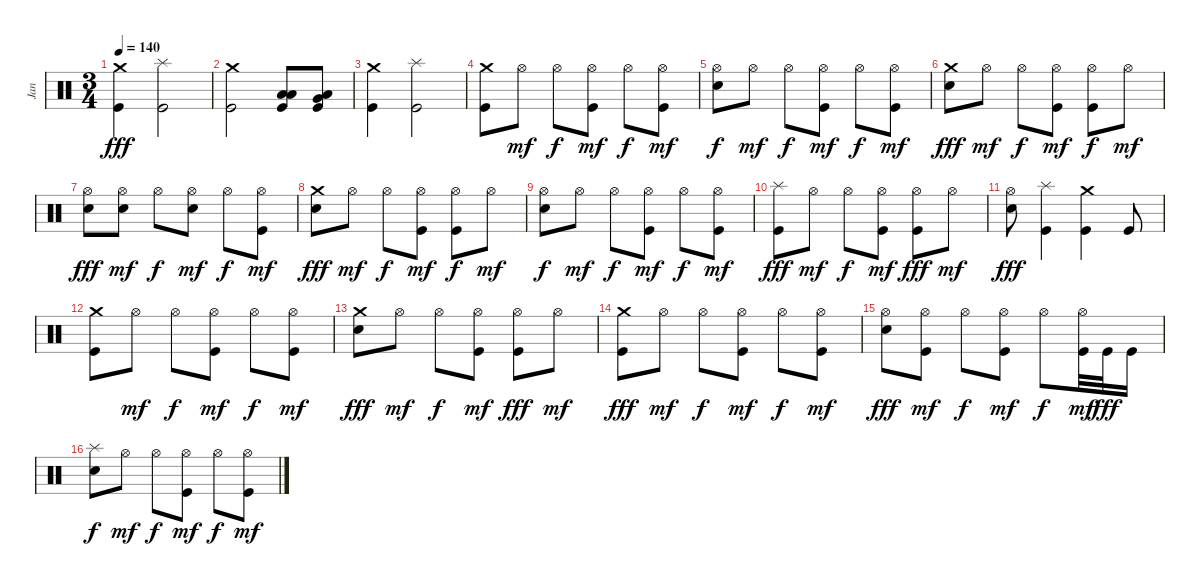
\track ("Jan" "Jan") {instrument percussion}
\staff {score}
\articulation defaults
\ts (3 4)
\tempo 140
\clef neutral
\ks c
("Kick (hit)" "Crash medium (hit)").4{dy fff} ("Kick (hit)" "Splash (hit)").2 |
("Kick (hit)" "Crash medium (hit)").2 ("Kick (hit)" "Low Tom (hit)" "Low Tom (hit)").8 ("Kick (hit)" "Very Low Tom (hit)" "Low Tom (hit)").8 |
("Kick (hit)" "Crash medium (hit)").4 ("Kick (hit)" "Splash (hit)").2 |
("Kick (hit)" "Crash medium (hit)").8 "Hi-Hat (open)".8{dy mf} "Hi-Hat (open)".8{dy f} ("Kick (hit)" "Hi-Hat (open)").8{dy mf} "Hi-Hat (open)".8{dy f} ("Kick (hit)" "Hi-Hat (open)").8{dy mf} |
("Snare (hit) 2" "Hi-Hat (open)").8{dy f} "Hi-Hat (open)".8{dy mf} "Hi-Hat (open)".8{dy f} ("Kick (hit)" "Hi-Hat (open)").8{dy mf} "Hi-Hat (open)".8{dy f} ("Kick (hit)" "Hi-Hat (open)").8{dy mf} |
("Snare (hit) 2" "Crash medium (hit)").8{dy fff} "Hi-Hat (open)".8{dy mf} "Hi-Hat (open)".8{dy f} ("Kick (hit)" "Hi-Hat (open)").8{dy mf} ("Kick (hit)" "Hi-Hat (open)").8{dy f} "Hi-Hat (open)".8{dy mf} |
("Snare (hit) 2" "Hi-Hat (open)").8{dy fff} ("Snare (hit) 2" "Hi-Hat (open)").8{dy mf} "Hi-Hat (open)".8{dy f} ("Snare (hit) 2" "Hi-Hat (open)").8{dy mf} "Hi-Hat (open)".8{dy f} ("Kick (hit)" "Hi-Hat (open)").8{dy mf} |
("Snare (hit) 2" "Crash medium (hit)").8{dy fff} "Hi-Hat (open)".8{dy mf} "Hi-Hat (open)".8{dy f} ("Kick (hit)" "Hi-Hat (open)").8{dy mf} ("Kick (hit)" "Hi-Hat (open)").8{dy f} "Hi-Hat (open)".8{dy mf} |
("Snare (hit) 2" "Hi-Hat (open)").8{dy f} "Hi-Hat (open)".8{dy mf} "Hi-Hat (open)".8{dy f} ("Kick (hit)" "Hi-Hat (open)").8{dy mf} "Hi-Hat (open)".8{dy f} ("Kick (hit)" "Hi-Hat (open)").8{dy mf} |
("Kick (hit)" "Splash (hit)").8{dy fff} "Hi-Hat (open)".8{dy mf} "Hi-Hat (open)".8{dy f} ("Kick (hit)" "Hi-Hat (open)").8{dy mf} ("Kick (hit)" "Hi-Hat (open)").8{dy fff} "Hi-Hat (open)".8{dy mf} |
("Snare (hit) 2" "Hi-Hat (open)").8{dy fff} ("Kick (hit)" "Splash (hit)").4 ("Kick (hit)" "Crash medium (hit)").4 "Kick (hit)".8 |
("Kick (hit)" "Crash medium (hit)").8 "Hi-Hat (open)".8{dy mf} "Hi-Hat (open)".8{dy f} ("Kick (hit)" "Hi-Hat (open)").8{dy mf} "Hi-Hat (open)".8{dy f} ("Kick (hit)" "Hi-Hat (open)").8{dy mf} |
("Snare (hit) 2" "Crash medium (hit)").8{dy fff} "Hi-Hat (open)".8{dy mf} "Hi-Hat (open)".8{dy f} ("Kick (hit)" "Hi-Hat (open)").8{dy mf} ("Kick (hit)" "Hi-Hat (open)").8{dy fff} "Hi-Hat (open)".8{dy mf} |
("Kick (hit)" "Crash medium (hit)").8{dy fff} "Hi-Hat (open)".8{dy mf} "Hi-Hat (open)".8{dy f} ("Kick (hit)" "Hi-Hat (open)").8{dy mf} "Hi-Hat (open)".8{dy f} ("Kick (hit)" "Hi-Hat (open)").8{dy mf} |
("Snare (hit) 2" "Hi-Hat (open)").8{dy fff} ("Kick (hit)" "Hi-Hat (open)").8{dy mf} "Hi-Hat (open)".8{dy f} ("Kick (hit)" "Hi-Hat (open)").8{dy mf} "Hi-Hat (open)".8{dy f} ("Kick (hit)" "Hi-Hat (open)").32{dy mf} "Kick (hit)".32{dy fff} "Kick (hit)".16 |
("Snare (hit) 2" "Splash (hit)").8{dy f} "Hi-Hat (open)".8{dy mf} "Hi-Hat (open)".8{dy f} ("Kick (hit)" "Hi-Hat (open)").8{dy mf} "Hi-Hat (open)".8{dy f} ("Kick (hit)" "Hi-Hat (open)").8{dy mf}
